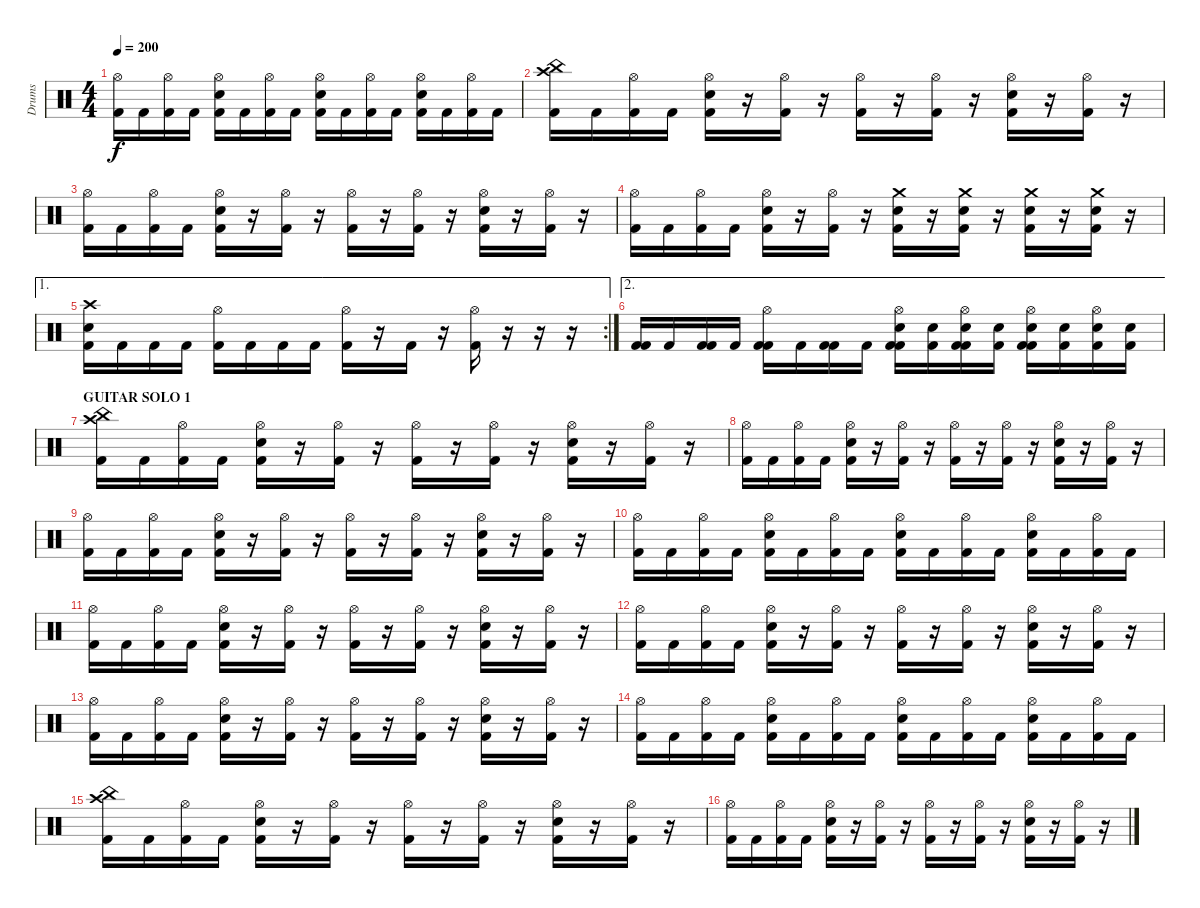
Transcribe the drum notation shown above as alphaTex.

\track ("Drums" "Drums") {instrument percussion}
\staff {score}
\articulation defaults
\ts (4 4)
\tempo 200
\clef neutral
\ks c
("Hi-Hat (open)" "Kick (hit) 2").16{dy f} "Kick (hit) 2".16 ("Hi-Hat (open)" "Kick (hit) 2").16 "Kick (hit) 2".16 ("Hi-Hat (open)" "Electric Snare (hit)" "Kick (hit) 2").16 "Kick (hit) 2".16 ("Hi-Hat (open)" "Kick (hit) 2").16 "Kick (hit) 2".16 ("Hi-Hat (open)" "Electric Snare (hit)" "Kick (hit) 2").16 "Kick (hit) 2".16 ("Hi-Hat (open)" "Kick (hit) 2").16 "Kick (hit) 2".16 ("Hi-Hat (open)" "Electric Snare (hit)" "Kick (hit) 2").16 "Kick (hit) 2".16 ("Hi-Hat (open)" "Kick (hit) 2").16 "Kick (hit) 2".16 |
("Crash high (hit)" "China (hit)" "Kick (hit) 2").16 "Kick (hit) 2".16 ("Hi-Hat (open)" "Kick (hit) 2").16 "Kick (hit) 2".16 ("Hi-Hat (open)" "Electric Snare (hit)" "Kick (hit) 2").16 r.16 ("Hi-Hat (open)" "Kick (hit) 2").16 r.16 ("Hi-Hat (open)" "Kick (hit) 2").16 r.16 ("Hi-Hat (open)" "Kick (hit) 2").16 r.16 ("Hi-Hat (open)" "Electric Snare (hit)" "Kick (hit) 2").16 r.16 ("Hi-Hat (open)" "Kick (hit) 2").16 r.16 |
("Hi-Hat (open)" "Kick (hit) 2").16 "Kick (hit) 2".16 ("Hi-Hat (open)" "Kick (hit) 2").16 "Kick (hit) 2".16 ("Hi-Hat (open)" "Electric Snare (hit)" "Kick (hit) 2").16 r.16 ("Hi-Hat (open)" "Kick (hit) 2").16 r.16 ("Hi-Hat (open)" "Kick (hit) 2").16 r.16 ("Hi-Hat (open)" "Kick (hit) 2").16 r.16 ("Hi-Hat (open)" "Electric Snare (hit)" "Kick (hit) 2").16 r.16 ("Hi-Hat (open)" "Kick (hit) 2").16 r.16 |
("Hi-Hat (open)" "Kick (hit) 2").16 "Kick (hit) 2".16 ("Hi-Hat (open)" "Kick (hit) 2").16 "Kick (hit) 2".16 ("Hi-Hat (open)" "Electric Snare (hit)" "Kick (hit) 2").16 r.16 ("Hi-Hat (open)" "Kick (hit) 2").16 r.16 ("Crash medium (hit)" "Electric Snare (hit)" "Kick (hit) 2").16 r.16 ("Crash medium (hit)" "Electric Snare (hit)" "Kick (hit) 2").16 r.16 ("Crash medium (hit)" "Electric Snare (hit)" "Kick (hit) 2").16 r.16 ("Crash medium (hit)" "Electric Snare (hit)" "Kick (hit) 2").16 r.16 |
\ae 1
\rc 2
("Kick (hit) 2" "Crash high (hit)" "Electric Snare (hit)").16 "Kick (hit) 2".16 "Kick (hit) 2".16 "Kick (hit) 2".16 ("Kick (hit) 2" "Hi-Hat (open)").16 "Kick (hit) 2".16 "Kick (hit) 2".16 "Kick (hit) 2".16 ("Kick (hit) 2" "Hi-Hat (open)").16 r.16 "Kick (hit) 2".16 r.16 ("Kick (hit) 2" "Hi-Hat (open)").16 r.16 r.16 r.16 |
\ae 2
("Kick (hit) 2" "Kick (hit) 2").16 "Kick (hit) 2".16 ("Kick (hit) 2" "Kick (hit) 2").16 "Kick (hit) 2".16 ("Kick (hit) 2" "Kick (hit) 2" "Hi-Hat (open)").16 "Kick (hit) 2".16 ("Kick (hit) 2" "Kick (hit) 2").16 "Kick (hit) 2".16 ("Kick (hit) 2" "Hi-Hat (open)" "Kick (hit) 2" "Electric Snare (hit)").16 ("Kick (hit) 2" "Electric Snare (hit)").16 ("Kick (hit) 2" "Hi-Hat (open)" "Kick (hit) 2" "Electric Snare (hit)").16 ("Kick (hit) 2" "Electric Snare (hit)").16 ("Kick (hit) 2" "Hi-Hat (open)" "Kick (hit) 2" "Electric Snare (hit)").16 ("Kick (hit) 2" "Electric Snare (hit)").16 ("Hi-Hat (open)" "Kick (hit) 2" "Electric Snare (hit)").16 ("Kick (hit) 2" "Electric Snare (hit)").16 |
\section ("" "GUITAR SOLO 1")
("Crash high (hit)" "China (hit)" "Kick (hit) 2").16 "Kick (hit) 2".16 ("Hi-Hat (open)" "Kick (hit) 2").16 "Kick (hit) 2".16 ("Hi-Hat (open)" "Electric Snare (hit)" "Kick (hit) 2").16 r.16 ("Hi-Hat (open)" "Kick (hit) 2").16 r.16 ("Hi-Hat (open)" "Kick (hit) 2").16 r.16 ("Hi-Hat (open)" "Kick (hit) 2").16 r.16 ("Hi-Hat (open)" "Electric Snare (hit)" "Kick (hit) 2").16 r.16 ("Hi-Hat (open)" "Kick (hit) 2").16 r.16 |
("Hi-Hat (open)" "Kick (hit) 2").16 "Kick (hit) 2".16 ("Hi-Hat (open)" "Kick (hit) 2").16 "Kick (hit) 2".16 ("Hi-Hat (open)" "Electric Snare (hit)" "Kick (hit) 2").16 r.16 ("Hi-Hat (open)" "Kick (hit) 2").16 r.16 ("Hi-Hat (open)" "Kick (hit) 2").16 r.16 ("Hi-Hat (open)" "Kick (hit) 2").16 r.16 ("Hi-Hat (open)" "Electric Snare (hit)" "Kick (hit) 2").16 r.16 ("Hi-Hat (open)" "Kick (hit) 2").16 r.16 |
("Hi-Hat (open)" "Kick (hit) 2").16 "Kick (hit) 2".16 ("Hi-Hat (open)" "Kick (hit) 2").16 "Kick (hit) 2".16 ("Hi-Hat (open)" "Electric Snare (hit)" "Kick (hit) 2").16 r.16 ("Hi-Hat (open)" "Kick (hit) 2").16 r.16 ("Hi-Hat (open)" "Kick (hit) 2").16 r.16 ("Hi-Hat (open)" "Kick (hit) 2").16 r.16 ("Hi-Hat (open)" "Electric Snare (hit)" "Kick (hit) 2").16 r.16 ("Hi-Hat (open)" "Kick (hit) 2").16 r.16 |
("Hi-Hat (open)" "Kick (hit) 2").16 "Kick (hit) 2".16 ("Hi-Hat (open)" "Kick (hit) 2").16 "Kick (hit) 2".16 ("Hi-Hat (open)" "Electric Snare (hit)" "Kick (hit) 2").16 "Kick (hit) 2".16 ("Hi-Hat (open)" "Kick (hit) 2").16 "Kick (hit) 2".16 ("Hi-Hat (open)" "Electric Snare (hit)" "Kick (hit) 2").16 "Kick (hit) 2".16 ("Hi-Hat (open)" "Kick (hit) 2").16 "Kick (hit) 2".16 ("Hi-Hat (open)" "Electric Snare (hit)" "Kick (hit) 2").16 "Kick (hit) 2".16 ("Hi-Hat (open)" "Kick (hit) 2").16 "Kick (hit) 2".16 |
("Hi-Hat (open)" "Kick (hit) 2").16 "Kick (hit) 2".16 ("Hi-Hat (open)" "Kick (hit) 2").16 "Kick (hit) 2".16 ("Hi-Hat (open)" "Electric Snare (hit)" "Kick (hit) 2").16 r.16 ("Hi-Hat (open)" "Kick (hit) 2").16 r.16 ("Hi-Hat (open)" "Kick (hit) 2").16 r.16 ("Hi-Hat (open)" "Kick (hit) 2").16 r.16 ("Hi-Hat (open)" "Electric Snare (hit)" "Kick (hit) 2").16 r.16 ("Hi-Hat (open)" "Kick (hit) 2").16 r.16 |
("Hi-Hat (open)" "Kick (hit) 2").16 "Kick (hit) 2".16 ("Hi-Hat (open)" "Kick (hit) 2").16 "Kick (hit) 2".16 ("Hi-Hat (open)" "Electric Snare (hit)" "Kick (hit) 2").16 r.16 ("Hi-Hat (open)" "Kick (hit) 2").16 r.16 ("Hi-Hat (open)" "Kick (hit) 2").16 r.16 ("Hi-Hat (open)" "Kick (hit) 2").16 r.16 ("Hi-Hat (open)" "Electric Snare (hit)" "Kick (hit) 2").16 r.16 ("Hi-Hat (open)" "Kick (hit) 2").16 r.16 |
("Hi-Hat (open)" "Kick (hit) 2").16 "Kick (hit) 2".16 ("Hi-Hat (open)" "Kick (hit) 2").16 "Kick (hit) 2".16 ("Hi-Hat (open)" "Electric Snare (hit)" "Kick (hit) 2").16 r.16 ("Hi-Hat (open)" "Kick (hit) 2").16 r.16 ("Hi-Hat (open)" "Kick (hit) 2").16 r.16 ("Hi-Hat (open)" "Kick (hit) 2").16 r.16 ("Hi-Hat (open)" "Electric Snare (hit)" "Kick (hit) 2").16 r.16 ("Hi-Hat (open)" "Kick (hit) 2").16 r.16 |
("Hi-Hat (open)" "Kick (hit) 2").16 "Kick (hit) 2".16 ("Hi-Hat (open)" "Kick (hit) 2").16 "Kick (hit) 2".16 ("Hi-Hat (open)" "Electric Snare (hit)" "Kick (hit) 2").16 "Kick (hit) 2".16 ("Hi-Hat (open)" "Kick (hit) 2").16 "Kick (hit) 2".16 ("Hi-Hat (open)" "Electric Snare (hit)" "Kick (hit) 2").16 "Kick (hit) 2".16 ("Hi-Hat (open)" "Kick (hit) 2").16 "Kick (hit) 2".16 ("Hi-Hat (open)" "Electric Snare (hit)" "Kick (hit) 2").16 "Kick (hit) 2".16 ("Hi-Hat (open)" "Kick (hit) 2").16 "Kick (hit) 2".16 |
("Crash high (hit)" "China (hit)" "Kick (hit) 2").16 "Kick (hit) 2".16 ("Hi-Hat (open)" "Kick (hit) 2").16 "Kick (hit) 2".16 ("Hi-Hat (open)" "Electric Snare (hit)" "Kick (hit) 2").16 r.16 ("Hi-Hat (open)" "Kick (hit) 2").16 r.16 ("Hi-Hat (open)" "Kick (hit) 2").16 r.16 ("Hi-Hat (open)" "Kick (hit) 2").16 r.16 ("Hi-Hat (open)" "Electric Snare (hit)" "Kick (hit) 2").16 r.16 ("Hi-Hat (open)" "Kick (hit) 2").16 r.16 |
("Hi-Hat (open)" "Kick (hit) 2").16 "Kick (hit) 2".16 ("Hi-Hat (open)" "Kick (hit) 2").16 "Kick (hit) 2".16 ("Hi-Hat (open)" "Electric Snare (hit)" "Kick (hit) 2").16 r.16 ("Hi-Hat (open)" "Kick (hit) 2").16 r.16 ("Hi-Hat (open)" "Kick (hit) 2").16 r.16 ("Hi-Hat (open)" "Kick (hit) 2").16 r.16 ("Hi-Hat (open)" "Electric Snare (hit)" "Kick (hit) 2").16 r.16 ("Hi-Hat (open)" "Kick (hit) 2").16 r.16
